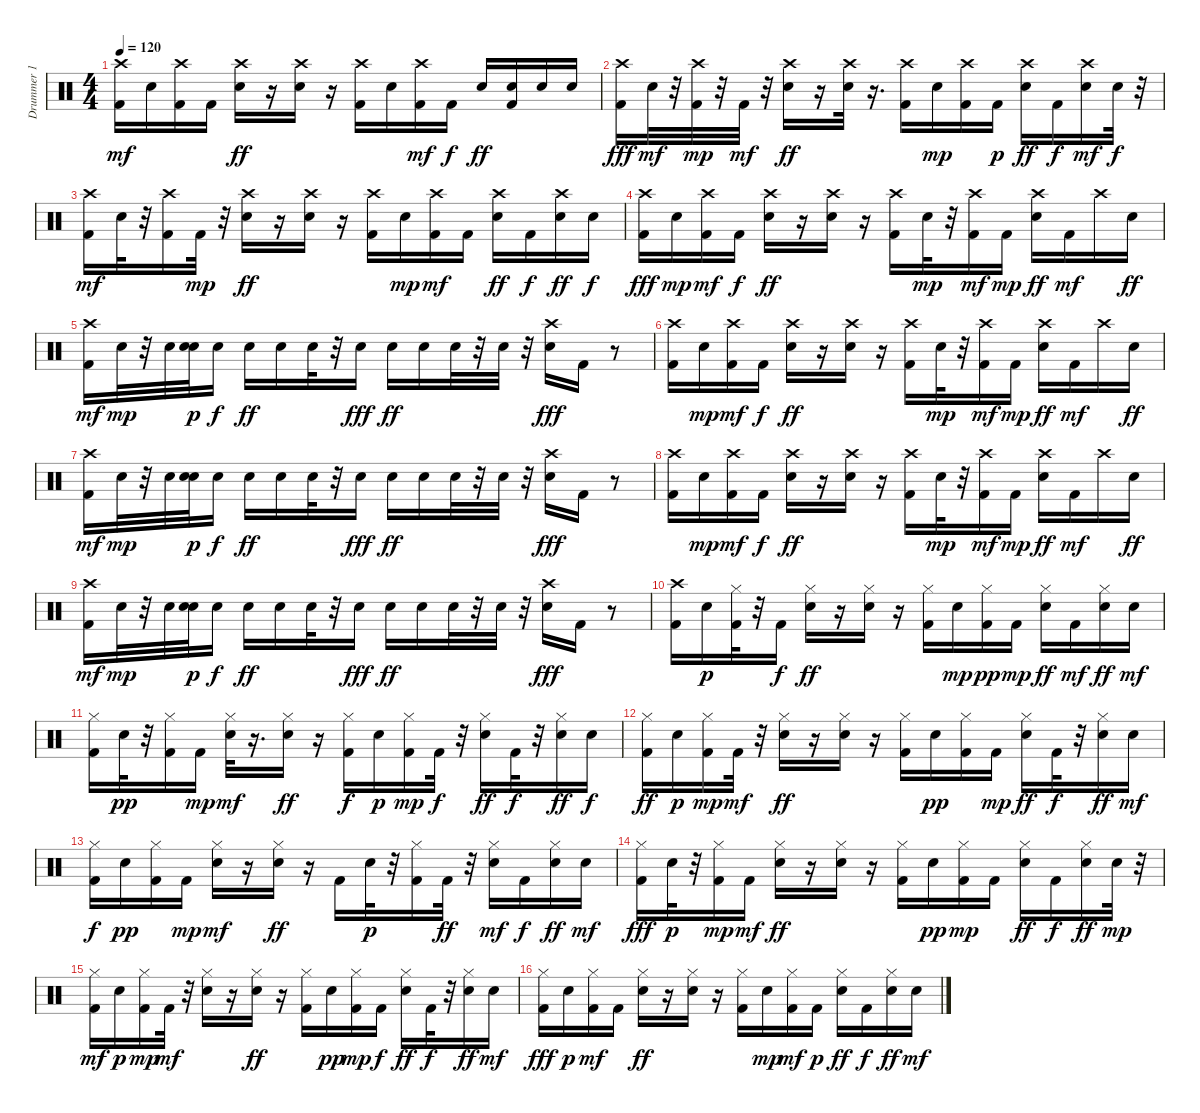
\track ("Drummer 1" "Drummer 1") {instrument percussion}
\staff {score}
\articulation defaults
\ts (4 4)
\tempo 120
\clef neutral
\ks c
("Kick (hit) 2" "Crash high (hit)").16{dy mf} "Electric Snare (hit)".16 ("Kick (hit) 2" "Crash high (hit)").16 "Kick (hit) 2".16 ("Electric Snare (hit)" "Crash high (hit)").16{dy ff} r.16 ("Electric Snare (hit)" "Crash high (hit)").16 r.16 ("Kick (hit) 2" "Crash high (hit)").16 "Electric Snare (hit)".16 ("Kick (hit) 2" "Crash high (hit)").16{dy mf} "Kick (hit) 2".16{dy f} "Electric Snare (hit)".16{dy ff} ("Kick (hit) 2" "Electric Snare (hit)").16 "Electric Snare (hit)".16 "Electric Snare (hit)".16 |
("Crash high (hit)" "Kick (hit) 2").16{dy fff} "Electric Snare (hit)".32{dy mf} r.32 ("Kick (hit) 2" "Crash high (hit)").32{dy mp} r.32 "Kick (hit) 2".32{dy mf} r.32 ("Electric Snare (hit)" "Crash high (hit)").16{dy ff} r.16 ("Electric Snare (hit)" "Crash high (hit)").32 r.16{d} ("Kick (hit) 2" "Crash high (hit)").16 "Electric Snare (hit)".16{dy mp} ("Kick (hit) 2" "Crash high (hit)").16 "Kick (hit) 2".16{dy p} ("Electric Snare (hit)" "Crash high (hit)").16{dy ff} "Kick (hit) 2".16{dy f} ("Electric Snare (hit)" "Crash high (hit)").16{dy mf} "Electric Snare (hit)".32{dy f} r.32 |
("Kick (hit) 2" "Crash high (hit)").16{dy mf} "Electric Snare (hit)".32 r.32 ("Kick (hit) 2" "Crash high (hit)").16 "Kick (hit) 2".32{dy mp} r.32 ("Electric Snare (hit)" "Crash high (hit)").16{dy ff} r.16 ("Electric Snare (hit)" "Crash high (hit)").16 r.16 ("Kick (hit) 2" "Crash high (hit)").16 "Electric Snare (hit)".16{dy mp} ("Kick (hit) 2" "Crash high (hit)").16{dy mf} "Kick (hit) 2".16 ("Electric Snare (hit)" "Crash high (hit)").16{dy ff} "Kick (hit) 2".16{dy f} ("Electric Snare (hit)" "Crash high (hit)").16{dy ff} "Electric Snare (hit)".16{dy f} |
("Crash high (hit)" "Kick (hit) 2").16{dy fff} "Electric Snare (hit)".16{dy mp} ("Kick (hit) 2" "Crash high (hit)").16{dy mf} "Kick (hit) 2".16{dy f} ("Electric Snare (hit)" "Crash high (hit)").16{dy ff} r.16 ("Electric Snare (hit)" "Crash high (hit)").16 r.16 ("Kick (hit) 2" "Crash high (hit)").16 "Electric Snare (hit)".32{dy mp} r.32 ("Kick (hit) 2" "Crash high (hit)").16{dy mf} "Kick (hit) 2".16{dy mp} ("Electric Snare (hit)" "Crash high (hit)").16{dy ff} "Kick (hit) 2".16{dy mf} "Crash high (hit)".16 "Electric Snare (hit)".16{dy ff} |
("Kick (hit) 2" "Crash high (hit)").16{dy mf} "Electric Snare (hit)".32{dy mp} r.32 "Electric Snare (hit)".32 ("Electric Snare (hit)" "Electric Snare (hit)").32{dy p} "Electric Snare (hit)".16{dy f} "Electric Snare (hit)".16{dy ff} "Electric Snare (hit)".16 "Electric Snare (hit)".32 r.32 "Electric Snare (hit)".16{dy fff} "Electric Snare (hit)".16{dy ff} "Electric Snare (hit)".16 "Electric Snare (hit)".32 r.32 "Electric Snare (hit)".32 r.32 ("Electric Snare (hit)" "Crash high (hit)").16{dy fff} "Kick (hit) 2".16 r.8 |
("Crash high (hit)" "Kick (hit) 2").16 "Electric Snare (hit)".16{dy mp} ("Kick (hit) 2" "Crash high (hit)").16{dy mf} "Kick (hit) 2".16{dy f} ("Electric Snare (hit)" "Crash high (hit)").16{dy ff} r.16 ("Electric Snare (hit)" "Crash high (hit)").16 r.16 ("Kick (hit) 2" "Crash high (hit)").16 "Electric Snare (hit)".32{dy mp} r.32 ("Kick (hit) 2" "Crash high (hit)").16{dy mf} "Kick (hit) 2".16{dy mp} ("Electric Snare (hit)" "Crash high (hit)").16{dy ff} "Kick (hit) 2".16{dy mf} "Crash high (hit)".16 "Electric Snare (hit)".16{dy ff} |
("Kick (hit) 2" "Crash high (hit)").16{dy mf} "Electric Snare (hit)".32{dy mp} r.32 "Electric Snare (hit)".32 ("Electric Snare (hit)" "Electric Snare (hit)").32{dy p} "Electric Snare (hit)".16{dy f} "Electric Snare (hit)".16{dy ff} "Electric Snare (hit)".16 "Electric Snare (hit)".32 r.32 "Electric Snare (hit)".16{dy fff} "Electric Snare (hit)".16{dy ff} "Electric Snare (hit)".16 "Electric Snare (hit)".32 r.32 "Electric Snare (hit)".32 r.32 ("Electric Snare (hit)" "Crash high (hit)").16{dy fff} "Kick (hit) 2".16 r.8 |
("Crash high (hit)" "Kick (hit) 2").16 "Electric Snare (hit)".16{dy mp} ("Kick (hit) 2" "Crash high (hit)").16{dy mf} "Kick (hit) 2".16{dy f} ("Electric Snare (hit)" "Crash high (hit)").16{dy ff} r.16 ("Electric Snare (hit)" "Crash high (hit)").16 r.16 ("Kick (hit) 2" "Crash high (hit)").16 "Electric Snare (hit)".32{dy mp} r.32 ("Kick (hit) 2" "Crash high (hit)").16{dy mf} "Kick (hit) 2".16{dy mp} ("Electric Snare (hit)" "Crash high (hit)").16{dy ff} "Kick (hit) 2".16{dy mf} "Crash high (hit)".16 "Electric Snare (hit)".16{dy ff} |
("Kick (hit) 2" "Crash high (hit)").16{dy mf} "Electric Snare (hit)".32{dy mp} r.32 "Electric Snare (hit)".32 ("Electric Snare (hit)" "Electric Snare (hit)").32{dy p} "Electric Snare (hit)".16{dy f} "Electric Snare (hit)".16{dy ff} "Electric Snare (hit)".16 "Electric Snare (hit)".32 r.32 "Electric Snare (hit)".16{dy fff} "Electric Snare (hit)".16{dy ff} "Electric Snare (hit)".16 "Electric Snare (hit)".32 r.32 "Electric Snare (hit)".32 r.32 ("Electric Snare (hit)" "Crash high (hit)").16{dy fff} "Kick (hit) 2".16 r.8 |
("Crash high (hit)" "Kick (hit) 2").16 "Electric Snare (hit)".16{dy p} ("Hi-Hat (closed)" "Kick (hit) 2").32 r.32 "Kick (hit) 2".16{dy f} ("Hi-Hat (closed)" "Electric Snare (hit)").16{dy ff} r.16 ("Hi-Hat (closed)" "Electric Snare (hit)").16 r.16 ("Hi-Hat (closed)" "Kick (hit) 2").16 "Electric Snare (hit)".16{dy mp} ("Kick (hit) 2" "Hi-Hat (closed)").16{dy pp} "Kick (hit) 2".16{dy mp} ("Hi-Hat (closed)" "Electric Snare (hit)").16{dy ff} "Kick (hit) 2".16{dy mf} ("Hi-Hat (closed)" "Electric Snare (hit)").16{dy ff} "Electric Snare (hit)".16{dy mf} |
("Hi-Hat (closed)" "Kick (hit) 2").16 "Electric Snare (hit)".32{dy pp} r.32 ("Kick (hit) 2" "Hi-Hat (closed)").16 "Kick (hit) 2".16{dy mp} ("Electric Snare (hit)" "Hi-Hat (closed)").32{dy mf} r.16{d} ("Hi-Hat (closed)" "Electric Snare (hit)").16{dy ff} r.16 ("Hi-Hat (closed)" "Kick (hit) 2").16{dy f} "Electric Snare (hit)".16{dy p} ("Hi-Hat (closed)" "Kick (hit) 2").16{dy mp} "Kick (hit) 2".32{dy f} r.32 ("Hi-Hat (closed)" "Electric Snare (hit)").16{dy ff} "Kick (hit) 2".32{dy f} r.32 ("Hi-Hat (closed)" "Electric Snare (hit)").16{dy ff} "Electric Snare (hit)".16{dy f} |
("Hi-Hat (closed)" "Kick (hit) 2").16{dy ff} "Electric Snare (hit)".16{dy p} ("Hi-Hat (closed)" "Kick (hit) 2").16{dy mp} "Kick (hit) 2".32{dy mf} r.32 ("Hi-Hat (closed)" "Electric Snare (hit)").16{dy ff} r.16 ("Hi-Hat (closed)" "Electric Snare (hit)").16 r.16 ("Hi-Hat (closed)" "Kick (hit) 2").16 "Electric Snare (hit)".16{dy pp} ("Kick (hit) 2" "Hi-Hat (closed)").16 "Kick (hit) 2".16{dy mp} ("Hi-Hat (closed)" "Electric Snare (hit)").16{dy ff} "Kick (hit) 2".32{dy f} r.32 ("Hi-Hat (closed)" "Electric Snare (hit)").16{dy ff} "Electric Snare (hit)".16{dy mf} |
("Hi-Hat (closed)" "Kick (hit) 2").16{dy f} "Electric Snare (hit)".16{dy pp} ("Kick (hit) 2" "Hi-Hat (closed)").16 "Kick (hit) 2".16{dy mp} ("Electric Snare (hit)" "Hi-Hat (closed)").16{dy mf} r.16 ("Hi-Hat (closed)" "Electric Snare (hit)").16{dy ff} r.16 "Kick (hit) 2".16 "Electric Snare (hit)".32{dy p} r.32 ("Hi-Hat (closed)" "Kick (hit) 2").16 "Kick (hit) 2".32{dy ff} r.32 ("Hi-Hat (closed)" "Electric Snare (hit)").16{dy mf} "Kick (hit) 2".16{dy f} ("Hi-Hat (closed)" "Electric Snare (hit)").16{dy ff} "Electric Snare (hit)".16{dy mf} |
("Hi-Hat (closed)" "Kick (hit) 2").16{dy fff} "Electric Snare (hit)".32{dy p} r.32 ("Hi-Hat (closed)" "Kick (hit) 2").16{dy mp} "Kick (hit) 2".16{dy mf} ("Hi-Hat (closed)" "Electric Snare (hit)").16{dy ff} r.16 ("Hi-Hat (closed)" "Electric Snare (hit)").16 r.16 ("Hi-Hat (closed)" "Kick (hit) 2").16 "Electric Snare (hit)".16{dy pp} ("Kick (hit) 2" "Hi-Hat (closed)").16{dy mp} "Kick (hit) 2".16 ("Hi-Hat (closed)" "Electric Snare (hit)").16{dy ff} "Kick (hit) 2".16{dy f} ("Hi-Hat (closed)" "Electric Snare (hit)").16{dy ff} "Electric Snare (hit)".32{dy mp} r.32 |
("Hi-Hat (closed)" "Kick (hit) 2").16{dy mf} "Electric Snare (hit)".16{dy p} ("Kick (hit) 2" "Hi-Hat (closed)").16{dy mp} "Kick (hit) 2".32{dy mf} r.32 ("Electric Snare (hit)" "Hi-Hat (closed)").16 r.16 ("Hi-Hat (closed)" "Electric Snare (hit)").16{dy ff} r.16 ("Hi-Hat (closed)" "Kick (hit) 2").16 "Electric Snare (hit)".16{dy pp} ("Hi-Hat (closed)" "Kick (hit) 2").16{dy mp} "Kick (hit) 2".16{dy f} ("Hi-Hat (closed)" "Electric Snare (hit)").16{dy ff} "Kick (hit) 2".32{dy f} r.32 ("Hi-Hat (closed)" "Electric Snare (hit)").16{dy ff} "Electric Snare (hit)".16{dy mf} |
("Hi-Hat (closed)" "Kick (hit) 2").16{dy fff} "Electric Snare (hit)".16{dy p} ("Hi-Hat (closed)" "Kick (hit) 2").16{dy mf} "Kick (hit) 2".16 ("Hi-Hat (closed)" "Electric Snare (hit)").16{dy ff} r.16 ("Hi-Hat (closed)" "Electric Snare (hit)").16 r.16 ("Hi-Hat (closed)" "Kick (hit) 2").16 "Electric Snare (hit)".16{dy mp} ("Kick (hit) 2" "Hi-Hat (closed)").16{dy mf} "Kick (hit) 2".16{dy p} ("Hi-Hat (closed)" "Electric Snare (hit)").16{dy ff} "Kick (hit) 2".16{dy f} ("Hi-Hat (closed)" "Electric Snare (hit)").16{dy ff} "Electric Snare (hit)".16{dy mf}
